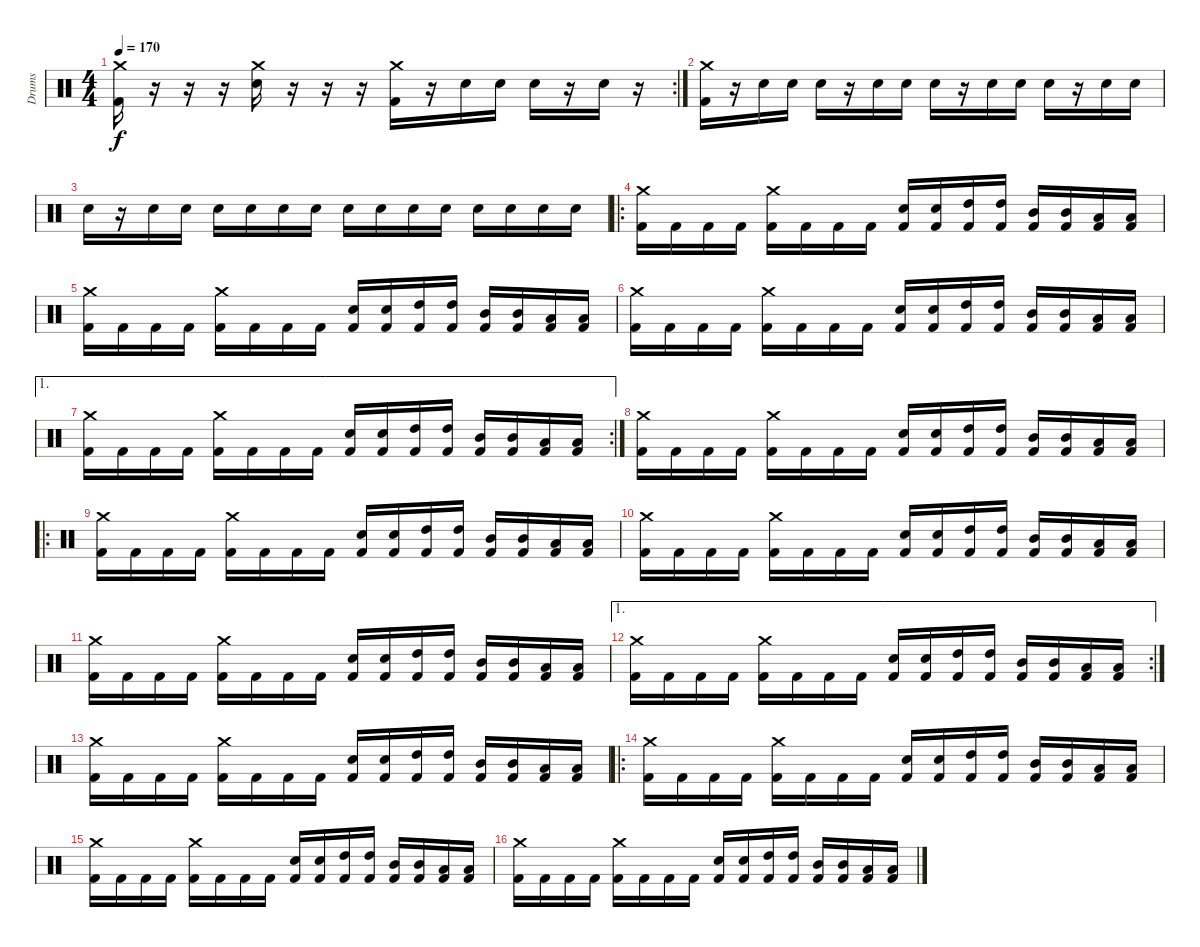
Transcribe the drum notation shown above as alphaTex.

\track ("Drums" "Drums") {instrument percussion}
\staff {score}
\articulation defaults
\rc 2
\ts (4 4)
\tempo 170
\clef neutral
\ks c
("Crash medium (hit)" "Kick (hit) 2").16{dy f} r.16 r.16 r.16 ("Crash medium (hit)" "Electric Snare (hit)").16 r.16 r.16 r.16 ("Crash medium (hit)" "Kick (hit) 2").16 r.16 "Electric Snare (hit)".16 "Electric Snare (hit)".16 "Electric Snare (hit)".16 r.16 "Electric Snare (hit)".16 r.16 |
("Crash medium (hit)" "Kick (hit) 2").16 r.16 "Electric Snare (hit)".16 "Electric Snare (hit)".16 "Electric Snare (hit)".16 r.16 "Electric Snare (hit)".16 "Electric Snare (hit)".16 "Electric Snare (hit)".16 r.16 "Electric Snare (hit)".16 "Electric Snare (hit)".16 "Electric Snare (hit)".16 r.16 "Electric Snare (hit)".16 "Electric Snare (hit)".16 |
"Electric Snare (hit)".16 r.16 "Electric Snare (hit)".16 "Electric Snare (hit)".16 "Electric Snare (hit)".16 "Electric Snare (hit)".16 "Electric Snare (hit)".16 "Electric Snare (hit)".16 "Electric Snare (hit)".16 "Electric Snare (hit)".16 "Electric Snare (hit)".16 "Electric Snare (hit)".16 "Electric Snare (hit)".16 "Electric Snare (hit)".16 "Electric Snare (hit)".16 "Electric Snare (hit)".16 |
\ro
("Crash medium (hit)" "Kick (hit) 2").16 "Kick (hit) 2".16 "Kick (hit) 2".16 "Kick (hit) 2".16 ("Crash medium (hit)" "Kick (hit) 2").16 "Kick (hit) 2".16 "Kick (hit) 2".16 "Kick (hit) 2".16 ("Electric Snare (hit)" "Kick (hit) 2").16 ("Electric Snare (hit)" "Kick (hit) 2").16 ("High Tom (hit)" "Kick (hit) 2").16 ("High Tom (hit)" "Kick (hit) 2").16 ("Mid Tom (hit)" "Kick (hit) 2").16 ("Mid Tom (hit)" "Kick (hit) 2").16 ("Low Tom (hit)" "Kick (hit) 2").16 ("Low Tom (hit)" "Kick (hit) 2").16 |
("Crash medium (hit)" "Kick (hit) 2").16 "Kick (hit) 2".16 "Kick (hit) 2".16 "Kick (hit) 2".16 ("Crash medium (hit)" "Kick (hit) 2").16 "Kick (hit) 2".16 "Kick (hit) 2".16 "Kick (hit) 2".16 ("Electric Snare (hit)" "Kick (hit) 2").16 ("Electric Snare (hit)" "Kick (hit) 2").16 ("High Tom (hit)" "Kick (hit) 2").16 ("High Tom (hit)" "Kick (hit) 2").16 ("Mid Tom (hit)" "Kick (hit) 2").16 ("Mid Tom (hit)" "Kick (hit) 2").16 ("Low Tom (hit)" "Kick (hit) 2").16 ("Low Tom (hit)" "Kick (hit) 2").16 |
("Crash medium (hit)" "Kick (hit) 2").16 "Kick (hit) 2".16 "Kick (hit) 2".16 "Kick (hit) 2".16 ("Crash medium (hit)" "Kick (hit) 2").16 "Kick (hit) 2".16 "Kick (hit) 2".16 "Kick (hit) 2".16 ("Electric Snare (hit)" "Kick (hit) 2").16 ("Electric Snare (hit)" "Kick (hit) 2").16 ("High Tom (hit)" "Kick (hit) 2").16 ("High Tom (hit)" "Kick (hit) 2").16 ("Mid Tom (hit)" "Kick (hit) 2").16 ("Mid Tom (hit)" "Kick (hit) 2").16 ("Low Tom (hit)" "Kick (hit) 2").16 ("Low Tom (hit)" "Kick (hit) 2").16 |
\ae 1
\rc 2
("Crash medium (hit)" "Kick (hit) 2").16 "Kick (hit) 2".16 "Kick (hit) 2".16 "Kick (hit) 2".16 ("Crash medium (hit)" "Kick (hit) 2").16 "Kick (hit) 2".16 "Kick (hit) 2".16 "Kick (hit) 2".16 ("Electric Snare (hit)" "Kick (hit) 2").16 ("Electric Snare (hit)" "Kick (hit) 2").16 ("High Tom (hit)" "Kick (hit) 2").16 ("High Tom (hit)" "Kick (hit) 2").16 ("Mid Tom (hit)" "Kick (hit) 2").16 ("Mid Tom (hit)" "Kick (hit) 2").16 ("Low Tom (hit)" "Kick (hit) 2").16 ("Low Tom (hit)" "Kick (hit) 2").16 |
("Crash medium (hit)" "Kick (hit) 2").16 "Kick (hit) 2".16 "Kick (hit) 2".16 "Kick (hit) 2".16 ("Crash medium (hit)" "Kick (hit) 2").16 "Kick (hit) 2".16 "Kick (hit) 2".16 "Kick (hit) 2".16 ("Electric Snare (hit)" "Kick (hit) 2").16 ("Electric Snare (hit)" "Kick (hit) 2").16 ("High Tom (hit)" "Kick (hit) 2").16 ("High Tom (hit)" "Kick (hit) 2").16 ("Mid Tom (hit)" "Kick (hit) 2").16 ("Mid Tom (hit)" "Kick (hit) 2").16 ("Low Tom (hit)" "Kick (hit) 2").16 ("Low Tom (hit)" "Kick (hit) 2").16 |
\ro
("Crash medium (hit)" "Kick (hit) 2").16 "Kick (hit) 2".16 "Kick (hit) 2".16 "Kick (hit) 2".16 ("Crash medium (hit)" "Kick (hit) 2").16 "Kick (hit) 2".16 "Kick (hit) 2".16 "Kick (hit) 2".16 ("Electric Snare (hit)" "Kick (hit) 2").16 ("Electric Snare (hit)" "Kick (hit) 2").16 ("High Tom (hit)" "Kick (hit) 2").16 ("High Tom (hit)" "Kick (hit) 2").16 ("Mid Tom (hit)" "Kick (hit) 2").16 ("Mid Tom (hit)" "Kick (hit) 2").16 ("Low Tom (hit)" "Kick (hit) 2").16 ("Low Tom (hit)" "Kick (hit) 2").16 |
("Crash medium (hit)" "Kick (hit) 2").16 "Kick (hit) 2".16 "Kick (hit) 2".16 "Kick (hit) 2".16 ("Crash medium (hit)" "Kick (hit) 2").16 "Kick (hit) 2".16 "Kick (hit) 2".16 "Kick (hit) 2".16 ("Electric Snare (hit)" "Kick (hit) 2").16 ("Electric Snare (hit)" "Kick (hit) 2").16 ("High Tom (hit)" "Kick (hit) 2").16 ("High Tom (hit)" "Kick (hit) 2").16 ("Mid Tom (hit)" "Kick (hit) 2").16 ("Mid Tom (hit)" "Kick (hit) 2").16 ("Low Tom (hit)" "Kick (hit) 2").16 ("Low Tom (hit)" "Kick (hit) 2").16 |
("Crash medium (hit)" "Kick (hit) 2").16 "Kick (hit) 2".16 "Kick (hit) 2".16 "Kick (hit) 2".16 ("Crash medium (hit)" "Kick (hit) 2").16 "Kick (hit) 2".16 "Kick (hit) 2".16 "Kick (hit) 2".16 ("Electric Snare (hit)" "Kick (hit) 2").16 ("Electric Snare (hit)" "Kick (hit) 2").16 ("High Tom (hit)" "Kick (hit) 2").16 ("High Tom (hit)" "Kick (hit) 2").16 ("Mid Tom (hit)" "Kick (hit) 2").16 ("Mid Tom (hit)" "Kick (hit) 2").16 ("Low Tom (hit)" "Kick (hit) 2").16 ("Low Tom (hit)" "Kick (hit) 2").16 |
\ae 1
\rc 2
("Crash medium (hit)" "Kick (hit) 2").16 "Kick (hit) 2".16 "Kick (hit) 2".16 "Kick (hit) 2".16 ("Crash medium (hit)" "Kick (hit) 2").16 "Kick (hit) 2".16 "Kick (hit) 2".16 "Kick (hit) 2".16 ("Electric Snare (hit)" "Kick (hit) 2").16 ("Electric Snare (hit)" "Kick (hit) 2").16 ("High Tom (hit)" "Kick (hit) 2").16 ("High Tom (hit)" "Kick (hit) 2").16 ("Mid Tom (hit)" "Kick (hit) 2").16 ("Mid Tom (hit)" "Kick (hit) 2").16 ("Low Tom (hit)" "Kick (hit) 2").16 ("Low Tom (hit)" "Kick (hit) 2").16 |
("Crash medium (hit)" "Kick (hit) 2").16 "Kick (hit) 2".16 "Kick (hit) 2".16 "Kick (hit) 2".16 ("Crash medium (hit)" "Kick (hit) 2").16 "Kick (hit) 2".16 "Kick (hit) 2".16 "Kick (hit) 2".16 ("Electric Snare (hit)" "Kick (hit) 2").16 ("Electric Snare (hit)" "Kick (hit) 2").16 ("High Tom (hit)" "Kick (hit) 2").16 ("High Tom (hit)" "Kick (hit) 2").16 ("Mid Tom (hit)" "Kick (hit) 2").16 ("Mid Tom (hit)" "Kick (hit) 2").16 ("Low Tom (hit)" "Kick (hit) 2").16 ("Low Tom (hit)" "Kick (hit) 2").16 |
\ro
("Crash medium (hit)" "Kick (hit) 2").16 "Kick (hit) 2".16 "Kick (hit) 2".16 "Kick (hit) 2".16 ("Crash medium (hit)" "Kick (hit) 2").16 "Kick (hit) 2".16 "Kick (hit) 2".16 "Kick (hit) 2".16 ("Electric Snare (hit)" "Kick (hit) 2").16 ("Electric Snare (hit)" "Kick (hit) 2").16 ("High Tom (hit)" "Kick (hit) 2").16 ("High Tom (hit)" "Kick (hit) 2").16 ("Mid Tom (hit)" "Kick (hit) 2").16 ("Mid Tom (hit)" "Kick (hit) 2").16 ("Low Tom (hit)" "Kick (hit) 2").16 ("Low Tom (hit)" "Kick (hit) 2").16 |
("Crash medium (hit)" "Kick (hit) 2").16 "Kick (hit) 2".16 "Kick (hit) 2".16 "Kick (hit) 2".16 ("Crash medium (hit)" "Kick (hit) 2").16 "Kick (hit) 2".16 "Kick (hit) 2".16 "Kick (hit) 2".16 ("Electric Snare (hit)" "Kick (hit) 2").16 ("Electric Snare (hit)" "Kick (hit) 2").16 ("High Tom (hit)" "Kick (hit) 2").16 ("High Tom (hit)" "Kick (hit) 2").16 ("Mid Tom (hit)" "Kick (hit) 2").16 ("Mid Tom (hit)" "Kick (hit) 2").16 ("Low Tom (hit)" "Kick (hit) 2").16 ("Low Tom (hit)" "Kick (hit) 2").16 |
("Crash medium (hit)" "Kick (hit) 2").16 "Kick (hit) 2".16 "Kick (hit) 2".16 "Kick (hit) 2".16 ("Crash medium (hit)" "Kick (hit) 2").16 "Kick (hit) 2".16 "Kick (hit) 2".16 "Kick (hit) 2".16 ("Electric Snare (hit)" "Kick (hit) 2").16 ("Electric Snare (hit)" "Kick (hit) 2").16 ("High Tom (hit)" "Kick (hit) 2").16 ("High Tom (hit)" "Kick (hit) 2").16 ("Mid Tom (hit)" "Kick (hit) 2").16 ("Mid Tom (hit)" "Kick (hit) 2").16 ("Low Tom (hit)" "Kick (hit) 2").16 ("Low Tom (hit)" "Kick (hit) 2").16
